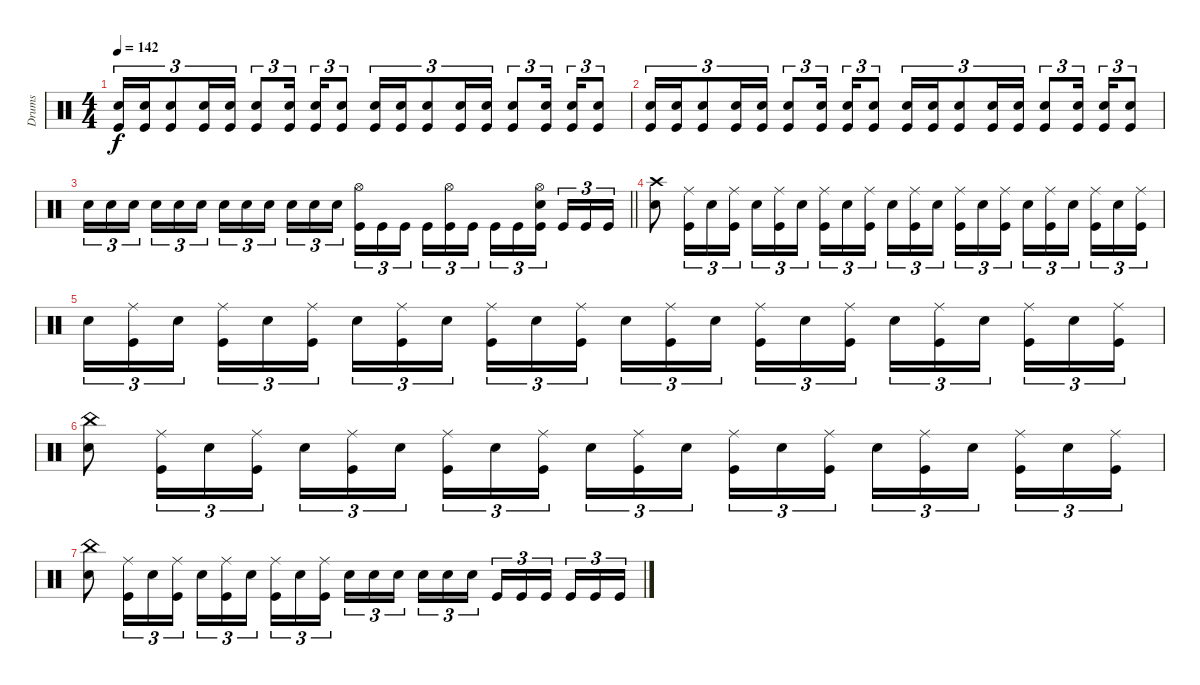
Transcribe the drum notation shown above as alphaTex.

\track ("Drums" "Drums") {instrument percussion}
\staff
\articulation defaults
\ts (4 4)
\tempo 142
\clef neutral
\ks c
("Electric Snare (hit)" "Kick (hit)").16{tu (3 2) dy f} ("Electric Snare (hit)" "Kick (hit)").16{tu (3 2)} ("Electric Snare (hit)" "Kick (hit)").8{tu (3 2)} ("Electric Snare (hit)" "Kick (hit)").16{tu (3 2)} ("Electric Snare (hit)" "Kick (hit)").16{tu (3 2)} ("Electric Snare (hit)" "Kick (hit)").8{tu (3 2)} ("Electric Snare (hit)" "Kick (hit)").16{tu (3 2) beam splitsecondary} ("Electric Snare (hit)" "Kick (hit)").16{tu (3 2)} ("Electric Snare (hit)" "Kick (hit)").8{tu (3 2)} ("Electric Snare (hit)" "Kick (hit)").16{tu (3 2)} ("Electric Snare (hit)" "Kick (hit)").16{tu (3 2)} ("Electric Snare (hit)" "Kick (hit)").8{tu (3 2)} ("Electric Snare (hit)" "Kick (hit)").16{tu (3 2)} ("Electric Snare (hit)" "Kick (hit)").16{tu (3 2)} ("Electric Snare (hit)" "Kick (hit)").8{tu (3 2)} ("Electric Snare (hit)" "Kick (hit)").16{tu (3 2) beam splitsecondary} ("Electric Snare (hit)" "Kick (hit)").16{tu (3 2)} ("Electric Snare (hit)" "Kick (hit)").8{tu (3 2)} |
("Electric Snare (hit)" "Kick (hit)").16{tu (3 2)} ("Electric Snare (hit)" "Kick (hit)").16{tu (3 2)} ("Electric Snare (hit)" "Kick (hit)").8{tu (3 2)} ("Electric Snare (hit)" "Kick (hit)").16{tu (3 2)} ("Electric Snare (hit)" "Kick (hit)").16{tu (3 2)} ("Electric Snare (hit)" "Kick (hit)").8{tu (3 2)} ("Electric Snare (hit)" "Kick (hit)").16{tu (3 2) beam splitsecondary} ("Electric Snare (hit)" "Kick (hit)").16{tu (3 2)} ("Electric Snare (hit)" "Kick (hit)").8{tu (3 2)} ("Electric Snare (hit)" "Kick (hit)").16{tu (3 2)} ("Electric Snare (hit)" "Kick (hit)").16{tu (3 2)} ("Electric Snare (hit)" "Kick (hit)").8{tu (3 2)} ("Electric Snare (hit)" "Kick (hit)").16{tu (3 2)} ("Electric Snare (hit)" "Kick (hit)").16{tu (3 2)} ("Electric Snare (hit)" "Kick (hit)").8{tu (3 2)} ("Electric Snare (hit)" "Kick (hit)").16{tu (3 2) beam splitsecondary} ("Electric Snare (hit)" "Kick (hit)").16{tu (3 2)} ("Electric Snare (hit)" "Kick (hit)").8{tu (3 2)} |
\barLineRight lightlight "Electric Snare (hit)".16{tu (3 2)} "Electric Snare (hit)".16{tu (3 2)} "Electric Snare (hit)".16{tu (3 2) beam splitsecondary} "Electric Snare (hit)".16{tu (3 2)} "Electric Snare (hit)".16{tu (3 2)} "Electric Snare (hit)".16{tu (3 2)} "Electric Snare (hit)".16{tu (3 2)} "Electric Snare (hit)".16{tu (3 2)} "Electric Snare (hit)".16{tu (3 2) beam splitsecondary} "Electric Snare (hit)".16{tu (3 2)} "Electric Snare (hit)".16{tu (3 2)} "Electric Snare (hit)".16{tu (3 2)}
("Hi-Hat (open)" "Kick (hit)").16{tu (3 2)} "Kick (hit)".16{tu (3 2)} "Kick (hit)".16{tu (3 2) beam splitsecondary} "Kick (hit)".16{tu (3 2)} ("Hi-Hat (open)" "Kick (hit)").16{tu (3 2)} "Kick (hit)".16{tu (3 2)} "Kick (hit)".16{tu (3 2)} "Kick (hit)".16{tu (3 2)} ("Hi-Hat (open)" "Electric Snare (hit)" "Kick (hit)").16{tu (3 2) beam splitsecondary} "Kick (hit)".16{tu (3 2)} "Kick (hit)".16{tu (3 2)} "Kick (hit)".16{tu (3 2)} |
("Crash high (hit)" "Electric Snare (hit)").8 ("Ride (middle)" "Kick (hit)").16{tu (3 2)} "Electric Snare (hit)".16{tu (3 2)} ("Ride (middle)" "Kick (hit)").16{tu (3 2)} "Electric Snare (hit)".16{tu (3 2)} ("Ride (middle)" "Kick (hit)").16{tu (3 2)} "Electric Snare (hit)".16{tu (3 2) beam splitsecondary} ("Ride (middle)" "Kick (hit)").16{tu (3 2)} "Electric Snare (hit)".16{tu (3 2)} ("Ride (middle)" "Kick (hit)").16{tu (3 2)} "Electric Snare (hit)".16{tu (3 2)} ("Ride (middle)" "Kick (hit)").16{tu (3 2)} "Electric Snare (hit)".16{tu (3 2) beam splitsecondary} ("Ride (middle)" "Kick (hit)").16{tu (3 2)} "Electric Snare (hit)".16{tu (3 2)} ("Ride (middle)" "Kick (hit)").16{tu (3 2)} "Electric Snare (hit)".16{tu (3 2)} ("Ride (middle)" "Kick (hit)").16{tu (3 2)} "Electric Snare (hit)".16{tu (3 2) beam splitsecondary} ("Ride (middle)" "Kick (hit)").16{tu (3 2)} "Electric Snare (hit)".16{tu (3 2)} ("Ride (middle)" "Kick (hit)").16{tu (3 2)} |
"Electric Snare (hit)".16{tu (3 2)} ("Ride (middle)" "Kick (hit)").16{tu (3 2)} "Electric Snare (hit)".16{tu (3 2) beam splitsecondary} ("Ride (middle)" "Kick (hit)").16{tu (3 2)} "Electric Snare (hit)".16{tu (3 2)} ("Ride (middle)" "Kick (hit)").16{tu (3 2)} "Electric Snare (hit)".16{tu (3 2)} ("Ride (middle)" "Kick (hit)").16{tu (3 2)} "Electric Snare (hit)".16{tu (3 2) beam splitsecondary} ("Ride (middle)" "Kick (hit)").16{tu (3 2)} "Electric Snare (hit)".16{tu (3 2)} ("Ride (middle)" "Kick (hit)").16{tu (3 2)} "Electric Snare (hit)".16{tu (3 2)} ("Ride (middle)" "Kick (hit)").16{tu (3 2)} "Electric Snare (hit)".16{tu (3 2) beam splitsecondary} ("Ride (middle)" "Kick (hit)").16{tu (3 2)} "Electric Snare (hit)".16{tu (3 2)} ("Ride (middle)" "Kick (hit)").16{tu (3 2)} "Electric Snare (hit)".16{tu (3 2)} ("Ride (middle)" "Kick (hit)").16{tu (3 2)} "Electric Snare (hit)".16{tu (3 2) beam splitsecondary} ("Ride (middle)" "Kick (hit)").16{tu (3 2)} "Electric Snare (hit)".16{tu (3 2)} ("Ride (middle)" "Kick (hit)").16{tu (3 2)} |
("China (hit)" "Electric Snare (hit)").8 ("Ride (middle)" "Kick (hit)").16{tu (3 2)} "Electric Snare (hit)".16{tu (3 2)} ("Ride (middle)" "Kick (hit)").16{tu (3 2)} "Electric Snare (hit)".16{tu (3 2)} ("Ride (middle)" "Kick (hit)").16{tu (3 2)} "Electric Snare (hit)".16{tu (3 2) beam splitsecondary} ("Ride (middle)" "Kick (hit)").16{tu (3 2)} "Electric Snare (hit)".16{tu (3 2)} ("Ride (middle)" "Kick (hit)").16{tu (3 2)} "Electric Snare (hit)".16{tu (3 2)} ("Ride (middle)" "Kick (hit)").16{tu (3 2)} "Electric Snare (hit)".16{tu (3 2) beam splitsecondary} ("Ride (middle)" "Kick (hit)").16{tu (3 2)} "Electric Snare (hit)".16{tu (3 2)} ("Ride (middle)" "Kick (hit)").16{tu (3 2)} "Electric Snare (hit)".16{tu (3 2)} ("Ride (middle)" "Kick (hit)").16{tu (3 2)} "Electric Snare (hit)".16{tu (3 2) beam splitsecondary} ("Ride (middle)" "Kick (hit)").16{tu (3 2)} "Electric Snare (hit)".16{tu (3 2)} ("Ride (middle)" "Kick (hit)").16{tu (3 2)} |
("China (hit)" "Electric Snare (hit)").8 ("Ride (middle)" "Kick (hit)").16{tu (3 2)} "Electric Snare (hit)".16{tu (3 2)} ("Ride (middle)" "Kick (hit)").16{tu (3 2)} "Electric Snare (hit)".16{tu (3 2)} ("Ride (middle)" "Kick (hit)").16{tu (3 2)} "Electric Snare (hit)".16{tu (3 2) beam splitsecondary} ("Ride (middle)" "Kick (hit)").16{tu (3 2)} "Electric Snare (hit)".16{tu (3 2)} ("Ride (middle)" "Kick (hit)").16{tu (3 2)} "Electric Snare (hit)".16{tu (3 2)} "Electric Snare (hit)".16{tu (3 2)} "Electric Snare (hit)".16{tu (3 2) beam splitsecondary} "Electric Snare (hit)".16{tu (3 2)} "Electric Snare (hit)".16{tu (3 2)} "Electric Snare (hit)".16{tu (3 2)} "Kick (hit)".16{tu (3 2)} "Kick (hit)".16{tu (3 2)} "Kick (hit)".16{tu (3 2) beam splitsecondary} "Kick (hit)".16{tu (3 2)} "Kick (hit)".16{tu (3 2)} "Kick (hit)".16{tu (3 2)}
